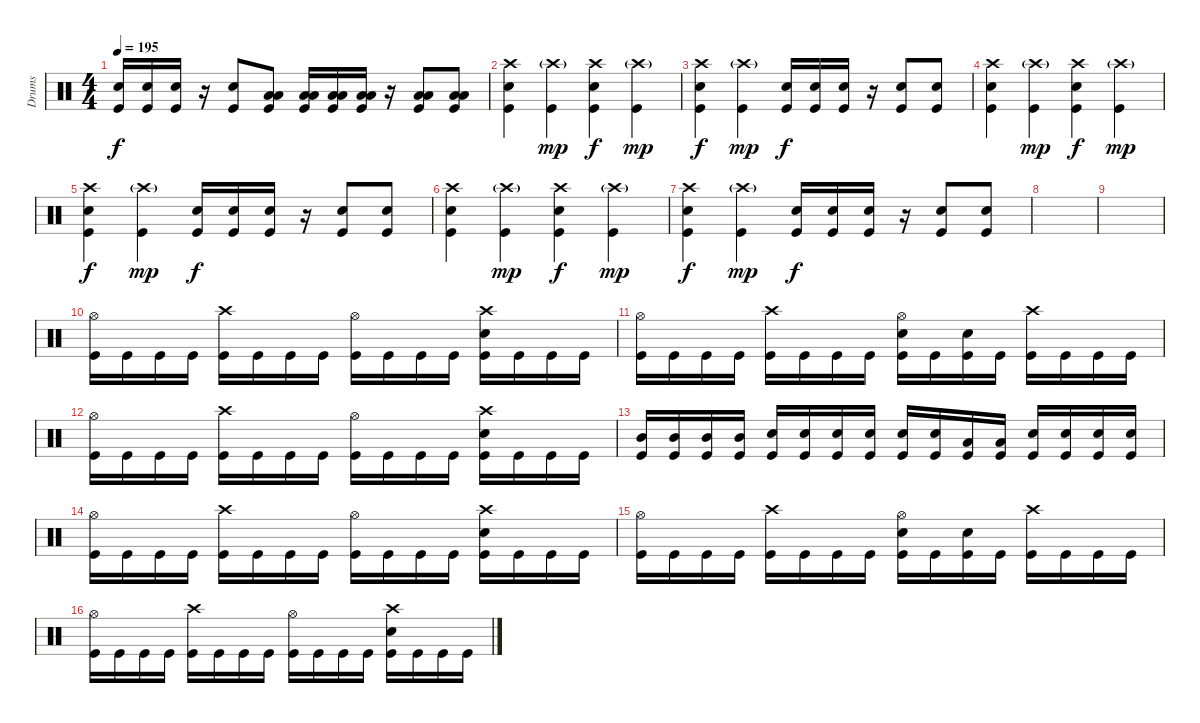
\track ("Drums" "Drums") {instrument percussion}
\staff {score}
\articulation defaults
\ts (4 4)
\tempo 195
\clef neutral
\ks c
("Electric Snare (hit)" "Kick (hit)").16{dy f} ("Electric Snare (hit)" "Kick (hit)").16 ("Electric Snare (hit)" "Kick (hit)").16 r.16 ("Electric Snare (hit)" "Kick (hit)").8 ("Low Tom (hit)" "Low Floor Tom (hit)" "Kick (hit)").8 ("Low Tom (hit)" "Low Floor Tom (hit)" "Kick (hit)").16 ("Low Tom (hit)" "Low Floor Tom (hit)" "Kick (hit)").16 ("Low Tom (hit)" "Low Floor Tom (hit)" "Kick (hit)").16 r.16 ("Low Tom (hit)" "Low Floor Tom (hit)" "Kick (hit)").8 ("Low Tom (hit)" "Low Floor Tom (hit)" "Kick (hit)").8 |
("Crash high (hit)" "Electric Snare (hit)" "Kick (hit)").4 ("Crash high (hit)"{g} "Kick (hit)").4{dy mp} ("Crash high (hit)" "Electric Snare (hit)" "Kick (hit)").4{dy f} ("Crash high (hit)"{g} "Kick (hit)").4{dy mp} |
("Crash high (hit)" "Electric Snare (hit)" "Kick (hit)").4{dy f} ("Crash high (hit)"{g} "Kick (hit)").4{dy mp} ("Electric Snare (hit)" "Kick (hit)").16{dy f} ("Electric Snare (hit)" "Kick (hit)").16 ("Electric Snare (hit)" "Kick (hit)").16 r.16 ("Electric Snare (hit)" "Kick (hit)").8 ("Electric Snare (hit)" "Kick (hit)").8 |
("Crash high (hit)" "Electric Snare (hit)" "Kick (hit)").4 ("Crash high (hit)"{g} "Kick (hit)").4{dy mp} ("Crash high (hit)" "Electric Snare (hit)" "Kick (hit)").4{dy f} ("Crash high (hit)"{g} "Kick (hit)").4{dy mp} |
("Crash high (hit)" "Electric Snare (hit)" "Kick (hit)").4{dy f} ("Crash high (hit)"{g} "Kick (hit)").4{dy mp} ("Electric Snare (hit)" "Kick (hit)").16{dy f} ("Electric Snare (hit)" "Kick (hit)").16 ("Electric Snare (hit)" "Kick (hit)").16 r.16 ("Electric Snare (hit)" "Kick (hit)").8 ("Electric Snare (hit)" "Kick (hit)").8 |
("Crash high (hit)" "Electric Snare (hit)" "Kick (hit)").4 ("Crash high (hit)"{g} "Kick (hit)").4{dy mp} ("Crash high (hit)" "Electric Snare (hit)" "Kick (hit)").4{dy f} ("Crash high (hit)"{g} "Kick (hit)").4{dy mp} |
("Crash high (hit)" "Electric Snare (hit)" "Kick (hit)").4{dy f} ("Crash high (hit)"{g} "Kick (hit)").4{dy mp} ("Electric Snare (hit)" "Kick (hit)").16{dy f} ("Electric Snare (hit)" "Kick (hit)").16 ("Electric Snare (hit)" "Kick (hit)").16 r.16 ("Electric Snare (hit)" "Kick (hit)").8 ("Electric Snare (hit)" "Kick (hit)").8 |
|
|
("Hi-Hat (open)" "Kick (hit)").16 "Kick (hit)".16 "Kick (hit)".16 "Kick (hit)".16 ("Crash high (hit)" "Kick (hit)").16 "Kick (hit)".16 "Kick (hit)".16 "Kick (hit)".16 ("Hi-Hat (open)" "Kick (hit)").16 "Kick (hit)".16 "Kick (hit)".16 "Kick (hit)".16 ("Crash high (hit)" "Electric Snare (hit)" "Kick (hit)").16 "Kick (hit)".16 "Kick (hit)".16 "Kick (hit)".16 |
("Hi-Hat (open)" "Kick (hit)").16 "Kick (hit)".16 "Kick (hit)".16 "Kick (hit)".16 ("Crash high (hit)" "Kick (hit)").16 "Kick (hit)".16 "Kick (hit)".16 "Kick (hit)".16 ("Hi-Hat (open)" "Electric Snare (hit)" "Kick (hit)").16 "Kick (hit)".16 ("Electric Snare (hit)" "Kick (hit)").16 "Kick (hit)".16 ("Crash high (hit)" "Kick (hit)").16 "Kick (hit)".16 "Kick (hit)".16 "Kick (hit)".16 |
("Hi-Hat (open)" "Kick (hit)").16 "Kick (hit)".16 "Kick (hit)".16 "Kick (hit)".16 ("Crash high (hit)" "Kick (hit)").16 "Kick (hit)".16 "Kick (hit)".16 "Kick (hit)".16 ("Hi-Hat (open)" "Kick (hit)").16 "Kick (hit)".16 "Kick (hit)".16 "Kick (hit)".16 ("Crash high (hit)" "Electric Snare (hit)" "Kick (hit)").16 "Kick (hit)".16 "Kick (hit)".16 "Kick (hit)".16 |
("Mid Tom (hit)" "Kick (hit)").16 ("Mid Tom (hit)" "Kick (hit)").16 ("Mid Tom (hit)" "Kick (hit)").16 ("Mid Tom (hit)" "Kick (hit)").16 ("Electric Snare (hit)" "Kick (hit)").16 ("Electric Snare (hit)" "Kick (hit)").16 ("Electric Snare (hit)" "Kick (hit)").16 ("Electric Snare (hit)" "Kick (hit)").16 ("Electric Snare (hit)" "Kick (hit)").16 ("Electric Snare (hit)" "Kick (hit)").16 ("Low Tom (hit)" "Kick (hit)").16 ("Low Tom (hit)" "Kick (hit)").16 ("Electric Snare (hit)" "Kick (hit)").16 ("Electric Snare (hit)" "Kick (hit)").16 ("Electric Snare (hit)" "Kick (hit)").16 ("Electric Snare (hit)" "Kick (hit)").16 |
("Hi-Hat (open)" "Kick (hit)").16 "Kick (hit)".16 "Kick (hit)".16 "Kick (hit)".16 ("Crash high (hit)" "Kick (hit)").16 "Kick (hit)".16 "Kick (hit)".16 "Kick (hit)".16 ("Hi-Hat (open)" "Kick (hit)").16 "Kick (hit)".16 "Kick (hit)".16 "Kick (hit)".16 ("Crash high (hit)" "Electric Snare (hit)" "Kick (hit)").16 "Kick (hit)".16 "Kick (hit)".16 "Kick (hit)".16 |
("Hi-Hat (open)" "Kick (hit)").16 "Kick (hit)".16 "Kick (hit)".16 "Kick (hit)".16 ("Crash high (hit)" "Kick (hit)").16 "Kick (hit)".16 "Kick (hit)".16 "Kick (hit)".16 ("Hi-Hat (open)" "Electric Snare (hit)" "Kick (hit)").16 "Kick (hit)".16 ("Electric Snare (hit)" "Kick (hit)").16 "Kick (hit)".16 ("Crash high (hit)" "Kick (hit)").16 "Kick (hit)".16 "Kick (hit)".16 "Kick (hit)".16 |
("Hi-Hat (open)" "Kick (hit)").16 "Kick (hit)".16 "Kick (hit)".16 "Kick (hit)".16 ("Crash high (hit)" "Kick (hit)").16 "Kick (hit)".16 "Kick (hit)".16 "Kick (hit)".16 ("Hi-Hat (open)" "Kick (hit)").16 "Kick (hit)".16 "Kick (hit)".16 "Kick (hit)".16 ("Crash high (hit)" "Electric Snare (hit)" "Kick (hit)").16 "Kick (hit)".16 "Kick (hit)".16 "Kick (hit)".16
